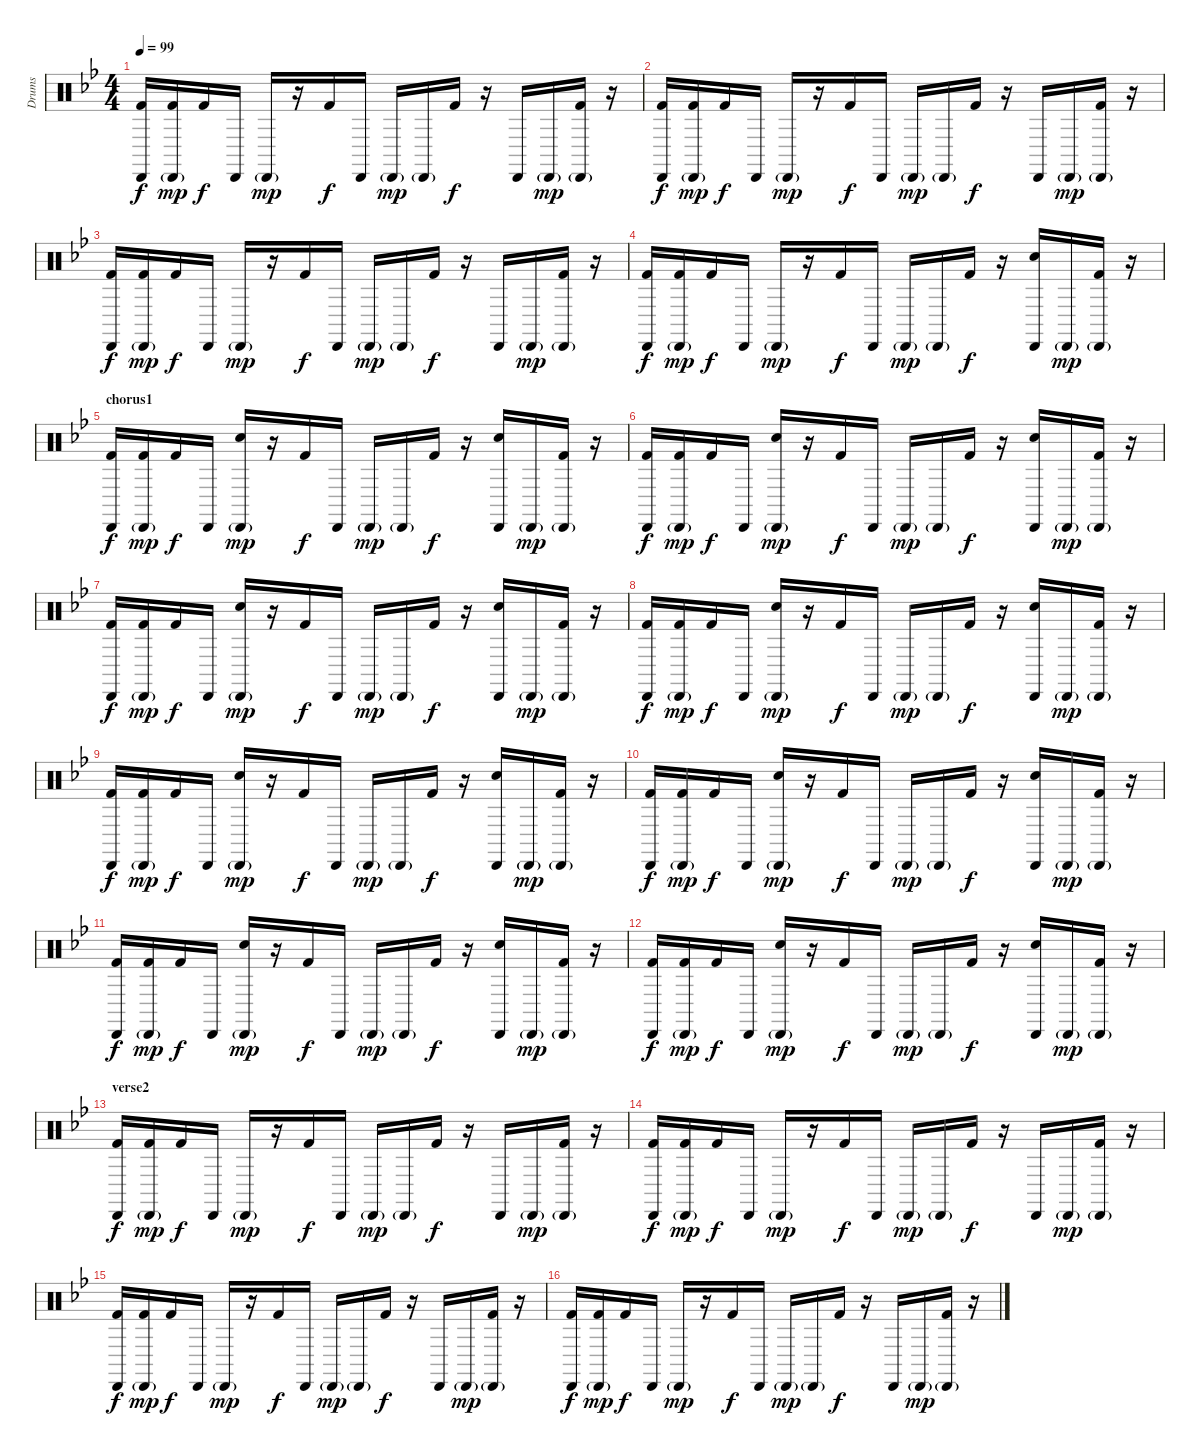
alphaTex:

\track ("Drums" "Drums") {instrument percussion}
\staff {score}
\articulation defaults
\ts (4 4)
\tempo 99
\clef neutral
\ks bb
("Cabasa (hit)" "Kick (hit) 2").16{dy f} ("Cabasa (hit)"{g} "Kick (hit) 2").16{dy mp} "Kick (hit) 2".16{dy f} "Cabasa (hit)".16 "Cabasa (hit)"{g}.16{dy mp} r.16 "Kick (hit) 2".16{dy f} "Cabasa (hit)".16 "Cabasa (hit)"{g}.16{dy mp} "Cabasa (hit)"{g}.16 "Kick (hit) 2".16{dy f} r.16 "Cabasa (hit)".16 "Cabasa (hit)"{g}.16{dy mp} ("Cabasa (hit)"{g} "Kick (hit) 2").16 r.16 |
("Cabasa (hit)" "Kick (hit) 2").16{dy f} ("Cabasa (hit)"{g} "Kick (hit) 2").16{dy mp} "Kick (hit) 2".16{dy f} "Cabasa (hit)".16 "Cabasa (hit)"{g}.16{dy mp} r.16 "Kick (hit) 2".16{dy f} "Cabasa (hit)".16 "Cabasa (hit)"{g}.16{dy mp} "Cabasa (hit)"{g}.16 "Kick (hit) 2".16{dy f} r.16 "Cabasa (hit)".16 "Cabasa (hit)"{g}.16{dy mp} ("Cabasa (hit)"{g} "Kick (hit) 2").16 r.16 |
("Cabasa (hit)" "Kick (hit) 2").16{dy f} ("Cabasa (hit)"{g} "Kick (hit) 2").16{dy mp} "Kick (hit) 2".16{dy f} "Cabasa (hit)".16 "Cabasa (hit)"{g}.16{dy mp} r.16 "Kick (hit) 2".16{dy f} "Cabasa (hit)".16 "Cabasa (hit)"{g}.16{dy mp} "Cabasa (hit)"{g}.16 "Kick (hit) 2".16{dy f} r.16 "Cabasa (hit)".16 "Cabasa (hit)"{g}.16{dy mp} ("Cabasa (hit)"{g} "Kick (hit) 2").16 r.16 |
("Cabasa (hit)" "Kick (hit) 2").16{dy f} ("Cabasa (hit)"{g} "Kick (hit) 2").16{dy mp} "Kick (hit) 2".16{dy f} "Cabasa (hit)".16 "Cabasa (hit)"{g}.16{dy mp} r.16 "Kick (hit) 2".16{dy f} "Cabasa (hit)".16 "Cabasa (hit)"{g}.16{dy mp} "Cabasa (hit)"{g}.16 "Kick (hit) 2".16{dy f} r.16 ("Cabasa (hit)" "Snare (hit) 2").16 "Cabasa (hit)"{g}.16{dy mp} ("Cabasa (hit)"{g} "Kick (hit) 2").16 r.16 |
\section ("" "chorus1")
("Cabasa (hit)" "Kick (hit) 2").16{dy f} ("Cabasa (hit)"{g} "Kick (hit) 2").16{dy mp} "Kick (hit) 2".16{dy f} "Cabasa (hit)".16 ("Cabasa (hit)"{g} "Snare (hit) 2").16{dy mp} r.16 "Kick (hit) 2".16{dy f} "Cabasa (hit)".16 "Cabasa (hit)"{g}.16{dy mp} "Cabasa (hit)"{g}.16 "Kick (hit) 2".16{dy f} r.16 ("Cabasa (hit)" "Snare (hit) 2").16 "Cabasa (hit)"{g}.16{dy mp} ("Cabasa (hit)"{g} "Kick (hit) 2").16 r.16 |
("Cabasa (hit)" "Kick (hit) 2").16{dy f} ("Cabasa (hit)"{g} "Kick (hit) 2").16{dy mp} "Kick (hit) 2".16{dy f} "Cabasa (hit)".16 ("Cabasa (hit)"{g} "Snare (hit) 2").16{dy mp} r.16 "Kick (hit) 2".16{dy f} "Cabasa (hit)".16 "Cabasa (hit)"{g}.16{dy mp} "Cabasa (hit)"{g}.16 "Kick (hit) 2".16{dy f} r.16 ("Cabasa (hit)" "Snare (hit) 2").16 "Cabasa (hit)"{g}.16{dy mp} ("Cabasa (hit)"{g} "Kick (hit) 2").16 r.16 |
("Cabasa (hit)" "Kick (hit) 2").16{dy f} ("Cabasa (hit)"{g} "Kick (hit) 2").16{dy mp} "Kick (hit) 2".16{dy f} "Cabasa (hit)".16 ("Cabasa (hit)"{g} "Snare (hit) 2").16{dy mp} r.16 "Kick (hit) 2".16{dy f} "Cabasa (hit)".16 "Cabasa (hit)"{g}.16{dy mp} "Cabasa (hit)"{g}.16 "Kick (hit) 2".16{dy f} r.16 ("Cabasa (hit)" "Snare (hit) 2").16 "Cabasa (hit)"{g}.16{dy mp} ("Cabasa (hit)"{g} "Kick (hit) 2").16 r.16 |
("Cabasa (hit)" "Kick (hit) 2").16{dy f} ("Cabasa (hit)"{g} "Kick (hit) 2").16{dy mp} "Kick (hit) 2".16{dy f} "Cabasa (hit)".16 ("Cabasa (hit)"{g} "Snare (hit) 2").16{dy mp} r.16 "Kick (hit) 2".16{dy f} "Cabasa (hit)".16 "Cabasa (hit)"{g}.16{dy mp} "Cabasa (hit)"{g}.16 "Kick (hit) 2".16{dy f} r.16 ("Cabasa (hit)" "Snare (hit) 2").16 "Cabasa (hit)"{g}.16{dy mp} ("Cabasa (hit)"{g} "Kick (hit) 2").16 r.16 |
("Cabasa (hit)" "Kick (hit) 2").16{dy f} ("Cabasa (hit)"{g} "Kick (hit) 2").16{dy mp} "Kick (hit) 2".16{dy f} "Cabasa (hit)".16 ("Cabasa (hit)"{g} "Snare (hit) 2").16{dy mp} r.16 "Kick (hit) 2".16{dy f} "Cabasa (hit)".16 "Cabasa (hit)"{g}.16{dy mp} "Cabasa (hit)"{g}.16 "Kick (hit) 2".16{dy f} r.16 ("Cabasa (hit)" "Snare (hit) 2").16 "Cabasa (hit)"{g}.16{dy mp} ("Cabasa (hit)"{g} "Kick (hit) 2").16 r.16 |
("Cabasa (hit)" "Kick (hit) 2").16{dy f} ("Cabasa (hit)"{g} "Kick (hit) 2").16{dy mp} "Kick (hit) 2".16{dy f} "Cabasa (hit)".16 ("Cabasa (hit)"{g} "Snare (hit) 2").16{dy mp} r.16 "Kick (hit) 2".16{dy f} "Cabasa (hit)".16 "Cabasa (hit)"{g}.16{dy mp} "Cabasa (hit)"{g}.16 "Kick (hit) 2".16{dy f} r.16 ("Cabasa (hit)" "Snare (hit) 2").16 "Cabasa (hit)"{g}.16{dy mp} ("Cabasa (hit)"{g} "Kick (hit) 2").16 r.16 |
("Cabasa (hit)" "Kick (hit) 2").16{dy f} ("Cabasa (hit)"{g} "Kick (hit) 2").16{dy mp} "Kick (hit) 2".16{dy f} "Cabasa (hit)".16 ("Cabasa (hit)"{g} "Snare (hit) 2").16{dy mp} r.16 "Kick (hit) 2".16{dy f} "Cabasa (hit)".16 "Cabasa (hit)"{g}.16{dy mp} "Cabasa (hit)"{g}.16 "Kick (hit) 2".16{dy f} r.16 ("Cabasa (hit)" "Snare (hit) 2").16 "Cabasa (hit)"{g}.16{dy mp} ("Cabasa (hit)"{g} "Kick (hit) 2").16 r.16 |
("Cabasa (hit)" "Kick (hit) 2").16{dy f} ("Cabasa (hit)"{g} "Kick (hit) 2").16{dy mp} "Kick (hit) 2".16{dy f} "Cabasa (hit)".16 ("Cabasa (hit)"{g} "Snare (hit) 2").16{dy mp} r.16 "Kick (hit) 2".16{dy f} "Cabasa (hit)".16 "Cabasa (hit)"{g}.16{dy mp} "Cabasa (hit)"{g}.16 "Kick (hit) 2".16{dy f} r.16 ("Cabasa (hit)" "Snare (hit) 2").16 "Cabasa (hit)"{g}.16{dy mp} ("Cabasa (hit)"{g} "Kick (hit) 2").16 r.16 |
\section ("" "verse2")
("Cabasa (hit)" "Kick (hit) 2").16{dy f} ("Cabasa (hit)"{g} "Kick (hit) 2").16{dy mp} "Kick (hit) 2".16{dy f} "Cabasa (hit)".16 "Cabasa (hit)"{g}.16{dy mp} r.16 "Kick (hit) 2".16{dy f} "Cabasa (hit)".16 "Cabasa (hit)"{g}.16{dy mp} "Cabasa (hit)"{g}.16 "Kick (hit) 2".16{dy f} r.16 "Cabasa (hit)".16 "Cabasa (hit)"{g}.16{dy mp} ("Cabasa (hit)"{g} "Kick (hit) 2").16 r.16 |
("Cabasa (hit)" "Kick (hit) 2").16{dy f} ("Cabasa (hit)"{g} "Kick (hit) 2").16{dy mp} "Kick (hit) 2".16{dy f} "Cabasa (hit)".16 "Cabasa (hit)"{g}.16{dy mp} r.16 "Kick (hit) 2".16{dy f} "Cabasa (hit)".16 "Cabasa (hit)"{g}.16{dy mp} "Cabasa (hit)"{g}.16 "Kick (hit) 2".16{dy f} r.16 "Cabasa (hit)".16 "Cabasa (hit)"{g}.16{dy mp} ("Cabasa (hit)"{g} "Kick (hit) 2").16 r.16 |
("Cabasa (hit)" "Kick (hit) 2").16{dy f} ("Cabasa (hit)"{g} "Kick (hit) 2").16{dy mp} "Kick (hit) 2".16{dy f} "Cabasa (hit)".16 "Cabasa (hit)"{g}.16{dy mp} r.16 "Kick (hit) 2".16{dy f} "Cabasa (hit)".16 "Cabasa (hit)"{g}.16{dy mp} "Cabasa (hit)"{g}.16 "Kick (hit) 2".16{dy f} r.16 "Cabasa (hit)".16 "Cabasa (hit)"{g}.16{dy mp} ("Cabasa (hit)"{g} "Kick (hit) 2").16 r.16 |
\section ("" "")
("Cabasa (hit)" "Kick (hit) 2").16{dy f} ("Cabasa (hit)"{g} "Kick (hit) 2").16{dy mp} "Kick (hit) 2".16{dy f} "Cabasa (hit)".16 "Cabasa (hit)"{g}.16{dy mp} r.16 "Kick (hit) 2".16{dy f} "Cabasa (hit)".16 "Cabasa (hit)"{g}.16{dy mp} "Cabasa (hit)"{g}.16 "Kick (hit) 2".16{dy f} r.16 "Cabasa (hit)".16 "Cabasa (hit)"{g}.16{dy mp} ("Cabasa (hit)"{g} "Kick (hit) 2").16 r.16
